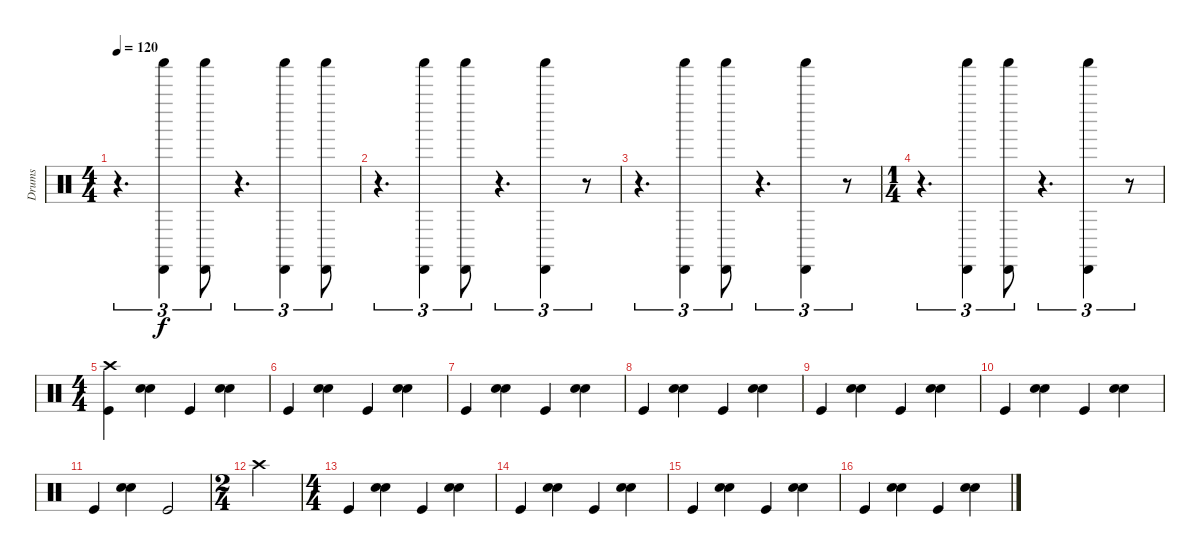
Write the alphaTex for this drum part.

\track ("Drums" "Drums") {instrument percussion}
\staff {score}
\articulation defaults
\ts (4 4)
\tempo 120
\clef neutral
\ks c
r.4{d tu (3 2) dy ff} ("Cabasa (hit)" "Shaker (hit)").4{tu (3 2) dy f} ("Cabasa (hit)" "Shaker (hit)").8{tu (3 2)} r.4{d tu (3 2)} ("Cabasa (hit)" "Shaker (hit)").4{tu (3 2)} ("Cabasa (hit)" "Shaker (hit)").8{tu (3 2)} |
r.4{d tu (3 2)} ("Cabasa (hit)" "Shaker (hit)").4{tu (3 2)} ("Cabasa (hit)" "Shaker (hit)").8{tu (3 2)} r.4{d tu (3 2)} ("Cabasa (hit)" "Shaker (hit)").4{tu (3 2)} r.8{tu (3 2)} |
r.4{d tu (3 2)} ("Cabasa (hit)" "Shaker (hit)").4{tu (3 2)} ("Cabasa (hit)" "Shaker (hit)").8{tu (3 2)} r.4{d tu (3 2)} ("Cabasa (hit)" "Shaker (hit)").4{tu (3 2)} r.8{tu (3 2)} |
\ts (1 4)
r.4{d tu (3 2)} ("Cabasa (hit)" "Shaker (hit)").4{tu (3 2)} ("Cabasa (hit)" "Shaker (hit)").8{tu (3 2)} r.4{d tu (3 2)} ("Cabasa (hit)" "Shaker (hit)").4{tu (3 2)} r.8{tu (3 2)} |
\ts (4 4)
("Kick (hit)" "Crash high (hit)").4 ("Snare (hit) 2" "Hand Clap (hit)").4 "Kick (hit)".4 ("Snare (hit) 2" "Hand Clap (hit)").4 |
"Kick (hit)".4 ("Snare (hit) 2" "Hand Clap (hit)").4 "Kick (hit)".4 ("Snare (hit) 2" "Hand Clap (hit)").4 |
"Kick (hit)".4 ("Snare (hit) 2" "Hand Clap (hit)").4 "Kick (hit)".4 ("Snare (hit) 2" "Hand Clap (hit)").4 |
"Kick (hit)".4 ("Snare (hit) 2" "Hand Clap (hit)").4 "Kick (hit)".4 ("Snare (hit) 2" "Hand Clap (hit)").4 |
"Kick (hit)".4 ("Snare (hit) 2" "Hand Clap (hit)").4 "Kick (hit)".4 ("Snare (hit) 2" "Hand Clap (hit)").4 |
"Kick (hit)".4 ("Snare (hit) 2" "Hand Clap (hit)").4 "Kick (hit)".4 ("Snare (hit) 2" "Hand Clap (hit)").4 |
"Kick (hit)".4 ("Snare (hit) 2" "Hand Clap (hit)").4 "Kick (hit)".2 |
\ts (2 4)
"Crash high (hit)".2 |
\ts (4 4)
"Kick (hit)".4 ("Snare (hit) 2" "Hand Clap (hit)").4 "Kick (hit)".4 ("Snare (hit) 2" "Hand Clap (hit)").4 |
"Kick (hit)".4 ("Snare (hit) 2" "Hand Clap (hit)").4 "Kick (hit)".4 ("Snare (hit) 2" "Hand Clap (hit)").4 |
"Kick (hit)".4 ("Snare (hit) 2" "Hand Clap (hit)").4 "Kick (hit)".4 ("Snare (hit) 2" "Hand Clap (hit)").4 |
"Kick (hit)".4 ("Snare (hit) 2" "Hand Clap (hit)").4 "Kick (hit)".4 ("Snare (hit) 2" "Hand Clap (hit)").4
